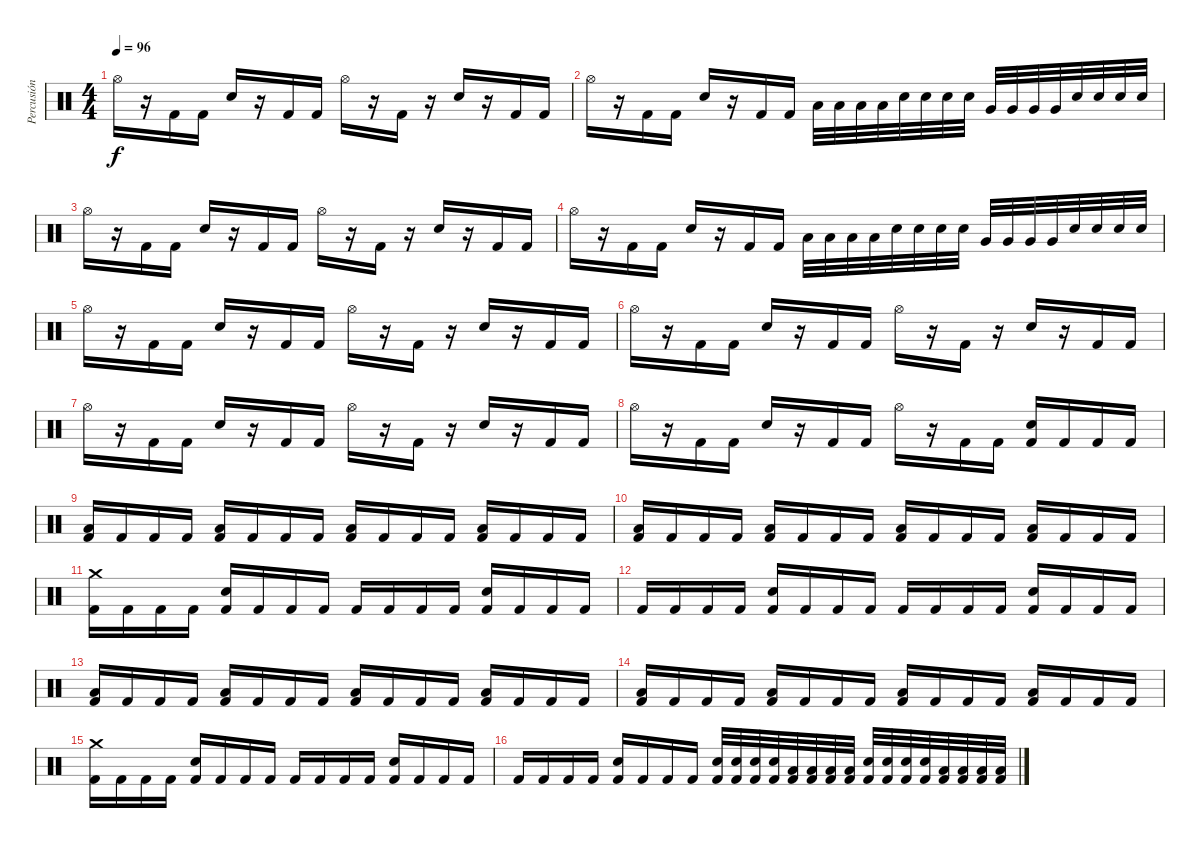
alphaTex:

\track ("Percusión" "Percusión") {instrument percussion}
\staff {score}
\articulation defaults
\ts (4 4)
\tempo 96
\clef neutral
\ks c "Hi-Hat (open)".16{dy f}
r.16 "Kick (hit) 2".16 "Kick (hit) 2".16 "Snare (hit) 2".16 r.16 "Kick (hit) 2".16 "Kick (hit) 2".16 "Hi-Hat (open)".16 r.16 "Kick (hit) 2".16 r.16 "Snare (hit) 2".16 r.16 "Kick (hit) 2".16 "Kick (hit) 2".16 |
"Hi-Hat (open)".16 r.16 "Kick (hit) 2".16 "Kick (hit) 2".16 "Snare (hit) 2".16 r.16 "Kick (hit) 2".16 "Kick (hit) 2".16 "Low Tom (hit)".32 "Low Tom (hit)".32 "Low Tom (hit)".32 "Low Tom (hit)".32 "Snare (hit) 2".32 "Snare (hit) 2".32 "Snare (hit) 2".32 "Snare (hit) 2".32 "Very Low Tom (hit)".32 "Very Low Tom (hit)".32 "Very Low Tom (hit)".32 "Very Low Tom (hit)".32 "Snare (hit) 2".32 "Snare (hit) 2".32 "Snare (hit) 2".32 "Snare (hit) 2".32 |
"Hi-Hat (open)".16 r.16 "Kick (hit) 2".16 "Kick (hit) 2".16 "Snare (hit) 2".16 r.16 "Kick (hit) 2".16 "Kick (hit) 2".16 "Hi-Hat (open)".16 r.16 "Kick (hit) 2".16 r.16 "Snare (hit) 2".16 r.16 "Kick (hit) 2".16 "Kick (hit) 2".16 |
"Hi-Hat (open)".16 r.16 "Kick (hit) 2".16 "Kick (hit) 2".16 "Snare (hit) 2".16 r.16 "Kick (hit) 2".16 "Kick (hit) 2".16 "Low Tom (hit)".32 "Low Tom (hit)".32 "Low Tom (hit)".32 "Low Tom (hit)".32 "Snare (hit) 2".32 "Snare (hit) 2".32 "Snare (hit) 2".32 "Snare (hit) 2".32 "Very Low Tom (hit)".32 "Very Low Tom (hit)".32 "Very Low Tom (hit)".32 "Very Low Tom (hit)".32 "Snare (hit) 2".32 "Snare (hit) 2".32 "Snare (hit) 2".32 "Snare (hit) 2".32 |
"Hi-Hat (open)".16 r.16 "Kick (hit) 2".16 "Kick (hit) 2".16 "Snare (hit) 2".16 r.16 "Kick (hit) 2".16 "Kick (hit) 2".16 "Hi-Hat (open)".16 r.16 "Kick (hit) 2".16 r.16 "Snare (hit) 2".16 r.16 "Kick (hit) 2".16 "Kick (hit) 2".16 |
"Hi-Hat (open)".16 r.16 "Kick (hit) 2".16 "Kick (hit) 2".16 "Snare (hit) 2".16 r.16 "Kick (hit) 2".16 "Kick (hit) 2".16 "Hi-Hat (open)".16 r.16 "Kick (hit) 2".16 r.16 "Snare (hit) 2".16 r.16 "Kick (hit) 2".16 "Kick (hit) 2".16 |
"Hi-Hat (open)".16 r.16 "Kick (hit) 2".16 "Kick (hit) 2".16 "Snare (hit) 2".16 r.16 "Kick (hit) 2".16 "Kick (hit) 2".16 "Hi-Hat (open)".16 r.16 "Kick (hit) 2".16 r.16 "Snare (hit) 2".16 r.16 "Kick (hit) 2".16 "Kick (hit) 2".16 |
"Hi-Hat (open)".16 r.16 "Kick (hit) 2".16 "Kick (hit) 2".16 "Snare (hit) 2".16 r.16 "Kick (hit) 2".16 "Kick (hit) 2".16 "Hi-Hat (open)".16 r.16 "Kick (hit) 2".16 "Kick (hit) 2".16 ("Snare (hit) 2" "Kick (hit) 2").16 "Kick (hit) 2".16 "Kick (hit) 2".16 "Kick (hit) 2".16 |
("Kick (hit) 2" "Low Tom (hit)").16 "Kick (hit) 2".16 "Kick (hit) 2".16 "Kick (hit) 2".16 ("Kick (hit) 2" "Low Floor Tom (hit)").16 "Kick (hit) 2".16 "Kick (hit) 2".16 "Kick (hit) 2".16 ("Kick (hit) 2" "Low Tom (hit)").16 "Kick (hit) 2".16 "Kick (hit) 2".16 "Kick (hit) 2".16 ("Kick (hit) 2" "Low Floor Tom (hit)").16 "Kick (hit) 2".16 "Kick (hit) 2".16 "Kick (hit) 2".16 |
("Kick (hit) 2" "Low Tom (hit)").16 "Kick (hit) 2".16 "Kick (hit) 2".16 "Kick (hit) 2".16 ("Kick (hit) 2" "Low Floor Tom (hit)").16 "Kick (hit) 2".16 "Kick (hit) 2".16 "Kick (hit) 2".16 ("Kick (hit) 2" "Low Tom (hit)").16 "Kick (hit) 2".16 "Kick (hit) 2".16 "Kick (hit) 2".16 ("Kick (hit) 2" "Low Floor Tom (hit)").16 "Kick (hit) 2".16 "Kick (hit) 2".16 "Kick (hit) 2".16 |
("Kick (hit) 2" "Crash medium (hit)").16 "Kick (hit) 2".16 "Kick (hit) 2".16 "Kick (hit) 2".16 ("Kick (hit) 2" "Snare (hit) 2").16 "Kick (hit) 2".16 "Kick (hit) 2".16 "Kick (hit) 2".16 "Kick (hit) 2".16 "Kick (hit) 2".16 "Kick (hit) 2".16 "Kick (hit) 2".16 ("Kick (hit) 2" "Snare (hit) 2").16 "Kick (hit) 2".16 "Kick (hit) 2".16 "Kick (hit) 2".16 |
"Kick (hit) 2".16 "Kick (hit) 2".16 "Kick (hit) 2".16 "Kick (hit) 2".16 ("Kick (hit) 2" "Snare (hit) 2").16 "Kick (hit) 2".16 "Kick (hit) 2".16 "Kick (hit) 2".16 "Kick (hit) 2".16 "Kick (hit) 2".16 "Kick (hit) 2".16 "Kick (hit) 2".16 ("Kick (hit) 2" "Snare (hit) 2").16 "Kick (hit) 2".16 "Kick (hit) 2".16 "Kick (hit) 2".16 |
("Kick (hit) 2" "Low Tom (hit)").16 "Kick (hit) 2".16 "Kick (hit) 2".16 "Kick (hit) 2".16 ("Kick (hit) 2" "Low Floor Tom (hit)").16 "Kick (hit) 2".16 "Kick (hit) 2".16 "Kick (hit) 2".16 ("Kick (hit) 2" "Low Tom (hit)").16 "Kick (hit) 2".16 "Kick (hit) 2".16 "Kick (hit) 2".16 ("Kick (hit) 2" "Low Floor Tom (hit)").16 "Kick (hit) 2".16 "Kick (hit) 2".16 "Kick (hit) 2".16 |
("Kick (hit) 2" "Low Tom (hit)").16 "Kick (hit) 2".16 "Kick (hit) 2".16 "Kick (hit) 2".16 ("Kick (hit) 2" "Low Floor Tom (hit)").16 "Kick (hit) 2".16 "Kick (hit) 2".16 "Kick (hit) 2".16 ("Kick (hit) 2" "Low Tom (hit)").16 "Kick (hit) 2".16 "Kick (hit) 2".16 "Kick (hit) 2".16 ("Kick (hit) 2" "Low Floor Tom (hit)").16 "Kick (hit) 2".16 "Kick (hit) 2".16 "Kick (hit) 2".16 |
("Kick (hit) 2" "Crash medium (hit)").16 "Kick (hit) 2".16 "Kick (hit) 2".16 "Kick (hit) 2".16 ("Kick (hit) 2" "Snare (hit) 2").16 "Kick (hit) 2".16 "Kick (hit) 2".16 "Kick (hit) 2".16 "Kick (hit) 2".16 "Kick (hit) 2".16 "Kick (hit) 2".16 "Kick (hit) 2".16 ("Kick (hit) 2" "Snare (hit) 2").16 "Kick (hit) 2".16 "Kick (hit) 2".16 "Kick (hit) 2".16 |
"Kick (hit) 2".16 "Kick (hit) 2".16 "Kick (hit) 2".16 "Kick (hit) 2".16 ("Kick (hit) 2" "Snare (hit) 2").16 "Kick (hit) 2".16 "Kick (hit) 2".16 "Kick (hit) 2".16 ("Kick (hit) 2" "Snare (hit) 2").32 ("Kick (hit) 2" "Snare (hit) 2").32 ("Kick (hit) 2" "Snare (hit) 2").32 ("Kick (hit) 2" "Snare (hit) 2").32 ("Kick (hit) 2" "Low Tom (hit)").32 ("Kick (hit) 2" "Low Tom (hit)").32 ("Kick (hit) 2" "Low Tom (hit)").32 ("Kick (hit) 2" "Low Tom (hit)").32 ("Kick (hit) 2" "Snare (hit) 2").32 ("Kick (hit) 2" "Snare (hit) 2").32 ("Kick (hit) 2" "Snare (hit) 2").32 ("Kick (hit) 2" "Snare (hit) 2").32 ("Kick (hit) 2" "Low Tom (hit)").32 ("Kick (hit) 2" "Low Tom (hit)").32 ("Kick (hit) 2" "Low Tom (hit)").32 ("Kick (hit) 2" "Low Tom (hit)").32
